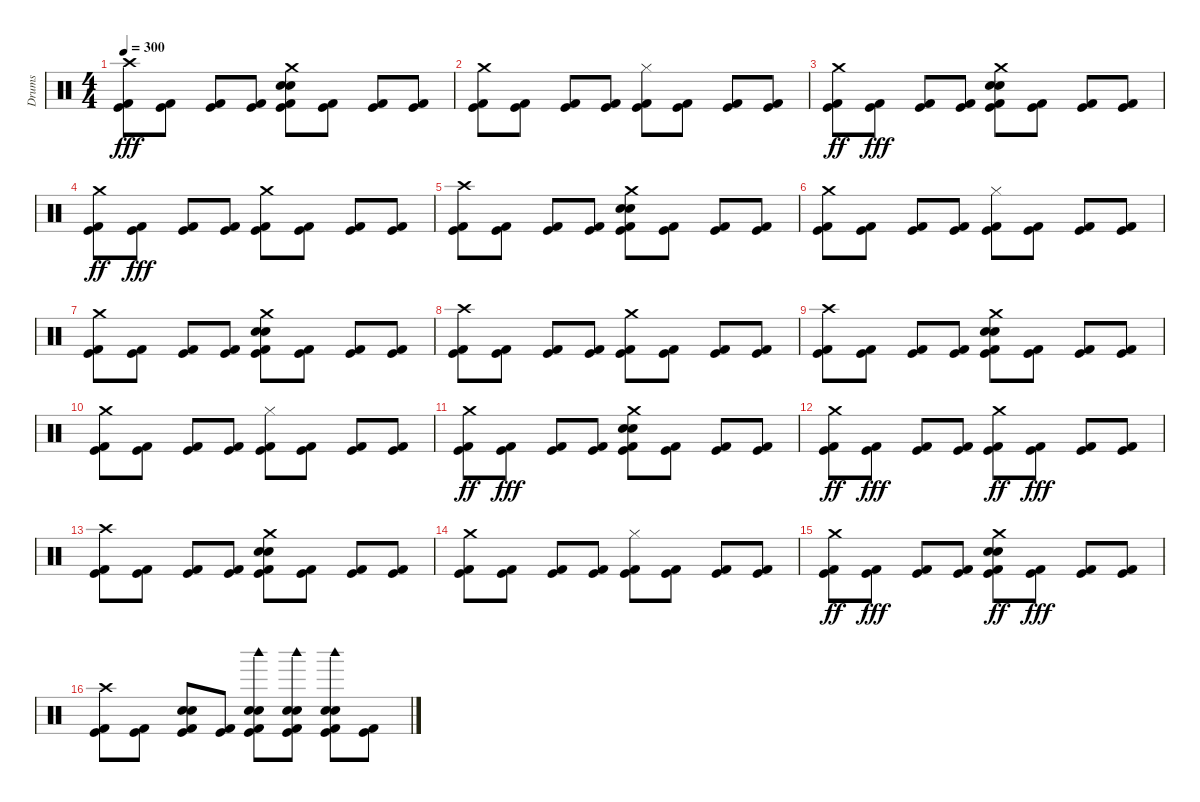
\track ("Drums" "Drums") {instrument percussion}
\staff {score}
\articulation defaults
\ts (4 4)
\tempo 300
\clef neutral
\ks c
("Kick (hit) 2" "Kick (hit)" "Crash high (hit)").8{dy fff} ("Kick (hit) 2" "Kick (hit)").8 ("Kick (hit) 2" "Kick (hit)").8 ("Kick (hit) 2" "Kick (hit)").8 ("Kick (hit) 2" "Snare (hit) 2" "Electric Snare (hit)" "Crash medium (hit)" "Kick (hit)").8 ("Kick (hit) 2" "Kick (hit)").8 ("Kick (hit) 2" "Kick (hit)").8 ("Kick (hit) 2" "Kick (hit)").8 |
("Kick (hit) 2" "Crash medium (hit)" "Kick (hit)").8 ("Kick (hit) 2" "Kick (hit)").8 ("Kick (hit) 2" "Kick (hit)").8 ("Kick (hit) 2" "Kick (hit)").8 ("Kick (hit) 2" "Kick (hit)" "Hi-Hat (closed)").8 ("Kick (hit) 2" "Kick (hit)").8 ("Kick (hit) 2" "Kick (hit)").8 ("Kick (hit) 2" "Kick (hit)").8 |
("Kick (hit) 2" "Kick (hit)" "Crash medium (hit)").8{dy ff} ("Kick (hit) 2" "Kick (hit)").8{dy fff} ("Kick (hit) 2" "Kick (hit)").8 ("Kick (hit) 2" "Kick (hit)").8 ("Kick (hit) 2" "Crash medium (hit)" "Snare (hit) 2" "Electric Snare (hit)" "Kick (hit)").8 ("Kick (hit) 2" "Kick (hit)").8 ("Kick (hit) 2" "Kick (hit)").8 ("Kick (hit) 2" "Kick (hit)").8 |
("Kick (hit) 2" "Kick (hit)" "Crash medium (hit)").8{dy ff} ("Kick (hit) 2" "Kick (hit)").8{dy fff} ("Kick (hit) 2" "Kick (hit)").8 ("Kick (hit) 2" "Kick (hit)").8 ("Kick (hit) 2" "Crash medium (hit)" "Kick (hit)").8 ("Kick (hit) 2" "Kick (hit)").8 ("Kick (hit) 2" "Kick (hit)").8 ("Kick (hit) 2" "Kick (hit)").8 |
("Kick (hit) 2" "Kick (hit)" "Crash high (hit)").8 ("Kick (hit) 2" "Kick (hit)").8 ("Kick (hit) 2" "Kick (hit)").8 ("Kick (hit) 2" "Kick (hit)").8 ("Kick (hit) 2" "Snare (hit) 2" "Crash medium (hit)" "Electric Snare (hit)" "Kick (hit)").8 ("Kick (hit) 2" "Kick (hit)").8 ("Kick (hit) 2" "Kick (hit)").8 ("Kick (hit) 2" "Kick (hit)").8 |
("Kick (hit) 2" "Crash medium (hit)" "Kick (hit)").8 ("Kick (hit) 2" "Kick (hit)").8 ("Kick (hit) 2" "Kick (hit)").8 ("Kick (hit) 2" "Kick (hit)").8 ("Kick (hit) 2" "Kick (hit)" "Hi-Hat (closed)").8 ("Kick (hit) 2" "Kick (hit)").8 ("Kick (hit) 2" "Kick (hit)").8 ("Kick (hit) 2" "Kick (hit)").8 |
("Kick (hit) 2" "Crash medium (hit)" "Kick (hit)").8 ("Kick (hit) 2" "Kick (hit)").8 ("Kick (hit) 2" "Kick (hit)").8 ("Kick (hit) 2" "Kick (hit)").8 ("Kick (hit) 2" "Crash medium (hit)" "Electric Snare (hit)" "Snare (hit) 2" "Kick (hit)").8 ("Kick (hit) 2" "Kick (hit)").8 ("Kick (hit) 2" "Kick (hit)").8 ("Kick (hit) 2" "Kick (hit)").8 |
("Kick (hit) 2" "Kick (hit)" "Crash high (hit)").8 ("Kick (hit) 2" "Kick (hit)").8 ("Kick (hit) 2" "Kick (hit)").8 ("Kick (hit) 2" "Kick (hit)").8 ("Kick (hit) 2" "Crash medium (hit)" "Kick (hit)").8 ("Kick (hit) 2" "Kick (hit)").8 ("Kick (hit) 2" "Kick (hit)").8 ("Kick (hit) 2" "Kick (hit)").8 |
("Kick (hit) 2" "Crash high (hit)" "Kick (hit)").8 ("Kick (hit) 2" "Kick (hit)").8 ("Kick (hit) 2" "Kick (hit)").8 ("Kick (hit) 2" "Kick (hit)").8 ("Kick (hit) 2" "Snare (hit) 2" "Electric Snare (hit)" "Crash medium (hit)" "Kick (hit)").8 ("Kick (hit) 2" "Kick (hit)").8 ("Kick (hit) 2" "Kick (hit)").8 ("Kick (hit) 2" "Kick (hit)").8 |
("Kick (hit) 2" "Crash medium (hit)" "Kick (hit)").8 ("Kick (hit) 2" "Kick (hit)").8 ("Kick (hit) 2" "Kick (hit)").8 ("Kick (hit) 2" "Kick (hit)").8 ("Kick (hit) 2" "Hi-Hat (closed)" "Kick (hit)").8 ("Kick (hit) 2" "Kick (hit)").8 ("Kick (hit) 2" "Kick (hit)").8 ("Kick (hit) 2" "Kick (hit)").8 |
("Kick (hit) 2" "Kick (hit)" "Crash medium (hit)").8{dy ff} ("Kick (hit) 2" "Kick (hit)").8{dy fff} ("Kick (hit) 2" "Kick (hit)").8 ("Kick (hit) 2" "Kick (hit)").8 ("Kick (hit) 2" "Crash medium (hit)" "Snare (hit) 2" "Electric Snare (hit)" "Kick (hit)").8 ("Kick (hit) 2" "Kick (hit)").8 ("Kick (hit) 2" "Kick (hit)").8 ("Kick (hit) 2" "Kick (hit)").8 |
("Kick (hit) 2" "Kick (hit)" "Crash medium (hit)").8{dy ff} ("Kick (hit) 2" "Kick (hit)").8{dy fff} ("Kick (hit) 2" "Kick (hit)").8 ("Kick (hit) 2" "Kick (hit)").8 ("Kick (hit) 2" "Kick (hit)" "Crash medium (hit)").8{dy ff} ("Kick (hit) 2" "Kick (hit)").8{dy fff} ("Kick (hit) 2" "Kick (hit)").8 ("Kick (hit) 2" "Kick (hit)").8 |
("Kick (hit) 2" "Kick (hit)" "Crash high (hit)").8 ("Kick (hit) 2" "Kick (hit)").8 ("Kick (hit) 2" "Kick (hit)").8 ("Kick (hit) 2" "Kick (hit)").8 ("Kick (hit) 2" "Kick (hit)" "Electric Snare (hit)" "Crash medium (hit)" "Snare (hit) 2").8 ("Kick (hit) 2" "Kick (hit)").8 ("Kick (hit) 2" "Kick (hit)").8 ("Kick (hit) 2" "Kick (hit)").8 |
("Kick (hit) 2" "Crash medium (hit)" "Kick (hit)").8 ("Kick (hit) 2" "Kick (hit)").8 ("Kick (hit) 2" "Kick (hit)").8 ("Kick (hit) 2" "Kick (hit)").8 ("Kick (hit) 2" "Hi-Hat (closed)" "Kick (hit)").8 ("Kick (hit) 2" "Kick (hit)").8 ("Kick (hit) 2" "Kick (hit)").8 ("Kick (hit) 2" "Kick (hit)").8 |
("Kick (hit) 2" "Kick (hit)" "Crash medium (hit)").8{dy ff} ("Kick (hit) 2" "Kick (hit)").8{dy fff} ("Kick (hit) 2" "Kick (hit)").8 ("Kick (hit) 2" "Kick (hit)").8 ("Kick (hit) 2" "Kick (hit)" "Snare (hit) 2" "Electric Snare (hit)" "Crash medium (hit)").8{dy ff} ("Kick (hit) 2" "Kick (hit)").8{dy fff} ("Kick (hit) 2" "Kick (hit)").8 ("Kick (hit) 2" "Kick (hit)").8 |
("Kick (hit) 2" "Crash high (hit)" "Kick (hit)").8 ("Kick (hit) 2" "Kick (hit)").8 ("Kick (hit) 2" "Electric Snare (hit)" "Snare (hit) 2" "Kick (hit)").8 ("Kick (hit) 2" "Kick (hit)").8 ("Kick (hit) 2" "Woodblock high (hit)" "Snare (hit) 2" "Electric Snare (hit)" "Kick (hit)").8 ("Kick (hit) 2" "Woodblock high (hit)" "Snare (hit) 2" "Electric Snare (hit)" "Kick (hit)").8 ("Kick (hit) 2" "Woodblock high (hit)" "Snare (hit) 2" "Electric Snare (hit)" "Kick (hit)").8 ("Kick (hit) 2" "Kick (hit)").8
